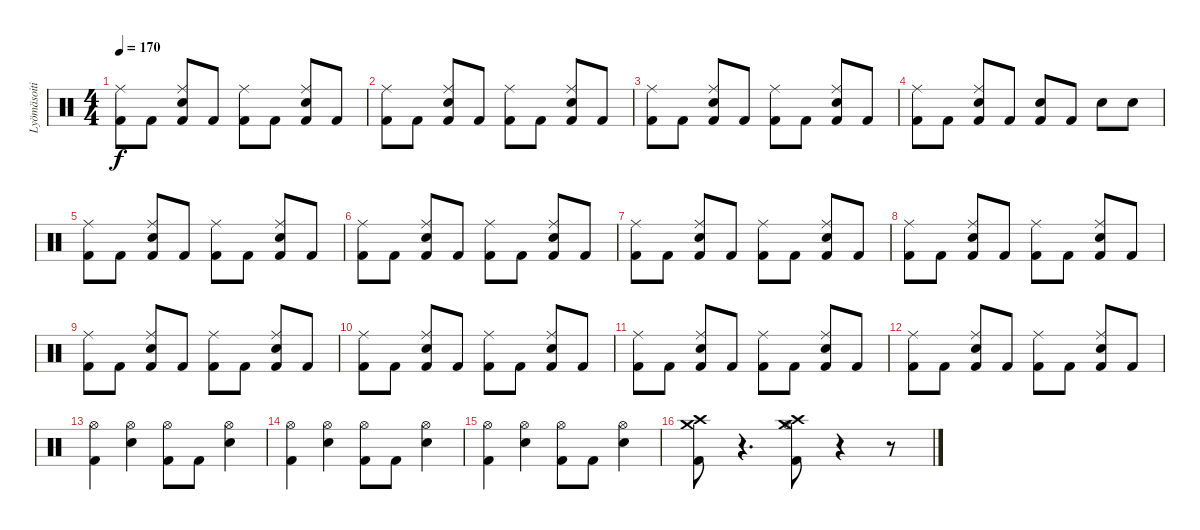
\track ("Lyömäsoitin" "Lyömäsoiti") {instrument percussion}
\staff {score}
\articulation defaults
\ts (4 4)
\tempo 170
\clef neutral
\ks c
("Kick (hit) 2" "Ride (middle)").8{dy f} "Kick (hit) 2".8 ("Kick (hit) 2" "Ride (middle)" "Snare (hit) 2").8 "Kick (hit) 2".8 ("Kick (hit) 2" "Ride (middle)").8 "Kick (hit) 2".8 ("Kick (hit) 2" "Ride (middle)" "Snare (hit) 2").8 "Kick (hit) 2".8 |
("Kick (hit) 2" "Ride (middle)").8 "Kick (hit) 2".8 ("Kick (hit) 2" "Ride (middle)" "Snare (hit) 2").8 "Kick (hit) 2".8 ("Kick (hit) 2" "Ride (middle)").8 "Kick (hit) 2".8 ("Kick (hit) 2" "Ride (middle)" "Snare (hit) 2").8 "Kick (hit) 2".8 |
("Kick (hit) 2" "Ride (middle)").8 "Kick (hit) 2".8 ("Kick (hit) 2" "Ride (middle)" "Snare (hit) 2").8 "Kick (hit) 2".8 ("Kick (hit) 2" "Ride (middle)").8 "Kick (hit) 2".8 ("Kick (hit) 2" "Ride (middle)" "Snare (hit) 2").8 "Kick (hit) 2".8 |
("Kick (hit) 2" "Ride (middle)").8 "Kick (hit) 2".8 ("Kick (hit) 2" "Ride (middle)" "Snare (hit) 2").8 "Kick (hit) 2".8 ("Kick (hit) 2" "Snare (hit) 2").8 "Kick (hit) 2".8 "Snare (hit) 2".8 "Snare (hit) 2".8 |
("Kick (hit) 2" "Ride (middle)").8 "Kick (hit) 2".8 ("Kick (hit) 2" "Ride (middle)" "Snare (hit) 2").8 "Kick (hit) 2".8 ("Kick (hit) 2" "Ride (middle)").8 "Kick (hit) 2".8 ("Kick (hit) 2" "Ride (middle)" "Snare (hit) 2").8 "Kick (hit) 2".8 |
("Kick (hit) 2" "Ride (middle)").8 "Kick (hit) 2".8 ("Kick (hit) 2" "Ride (middle)" "Snare (hit) 2").8 "Kick (hit) 2".8 ("Kick (hit) 2" "Ride (middle)").8 "Kick (hit) 2".8 ("Kick (hit) 2" "Ride (middle)" "Snare (hit) 2").8 "Kick (hit) 2".8 |
("Kick (hit) 2" "Ride (middle)").8 "Kick (hit) 2".8 ("Kick (hit) 2" "Ride (middle)" "Snare (hit) 2").8 "Kick (hit) 2".8 ("Kick (hit) 2" "Ride (middle)").8 "Kick (hit) 2".8 ("Kick (hit) 2" "Ride (middle)" "Snare (hit) 2").8 "Kick (hit) 2".8 |
("Kick (hit) 2" "Ride (middle)").8 "Kick (hit) 2".8 ("Kick (hit) 2" "Ride (middle)" "Snare (hit) 2").8 "Kick (hit) 2".8 ("Kick (hit) 2" "Ride (middle)").8 "Kick (hit) 2".8 ("Kick (hit) 2" "Ride (middle)" "Snare (hit) 2").8 "Kick (hit) 2".8 |
("Kick (hit) 2" "Ride (middle)").8 "Kick (hit) 2".8 ("Kick (hit) 2" "Ride (middle)" "Snare (hit) 2").8 "Kick (hit) 2".8 ("Kick (hit) 2" "Ride (middle)").8 "Kick (hit) 2".8 ("Kick (hit) 2" "Ride (middle)" "Snare (hit) 2").8 "Kick (hit) 2".8 |
("Kick (hit) 2" "Ride (middle)").8 "Kick (hit) 2".8 ("Kick (hit) 2" "Ride (middle)" "Snare (hit) 2").8 "Kick (hit) 2".8 ("Kick (hit) 2" "Ride (middle)").8 "Kick (hit) 2".8 ("Kick (hit) 2" "Ride (middle)" "Snare (hit) 2").8 "Kick (hit) 2".8 |
("Kick (hit) 2" "Ride (middle)").8 "Kick (hit) 2".8 ("Kick (hit) 2" "Ride (middle)" "Snare (hit) 2").8 "Kick (hit) 2".8 ("Kick (hit) 2" "Ride (middle)").8 "Kick (hit) 2".8 ("Kick (hit) 2" "Ride (middle)" "Snare (hit) 2").8 "Kick (hit) 2".8 |
("Kick (hit) 2" "Ride (middle)").8 "Kick (hit) 2".8 ("Kick (hit) 2" "Ride (middle)" "Snare (hit) 2").8 "Kick (hit) 2".8 ("Kick (hit) 2" "Ride (middle)").8 "Kick (hit) 2".8 ("Kick (hit) 2" "Ride (middle)" "Snare (hit) 2").8 "Kick (hit) 2".8 |
("Hi-Hat (open)" "Kick (hit) 2").4 ("Hi-Hat (open)" "Snare (hit) 2").4 ("Hi-Hat (open)" "Kick (hit) 2").8 "Kick (hit) 2".8 ("Hi-Hat (open)" "Snare (hit) 2").4 |
("Hi-Hat (open)" "Kick (hit) 2").4 ("Hi-Hat (open)" "Snare (hit) 2").4 ("Hi-Hat (open)" "Kick (hit) 2").8 "Kick (hit) 2".8 ("Hi-Hat (open)" "Snare (hit) 2").4 |
("Hi-Hat (open)" "Kick (hit) 2").4 ("Hi-Hat (open)" "Snare (hit) 2").4 ("Hi-Hat (open)" "Kick (hit) 2").8 "Kick (hit) 2".8 ("Hi-Hat (open)" "Snare (hit) 2").4 |
("Crash medium (hit)" "Crash high (hit)" "Kick (hit) 2").8 r.4{d} ("Crash medium (hit)" "Hi-Hat (open)" "Crash high (hit)" "Kick (hit) 2").8 r.4 r.8
